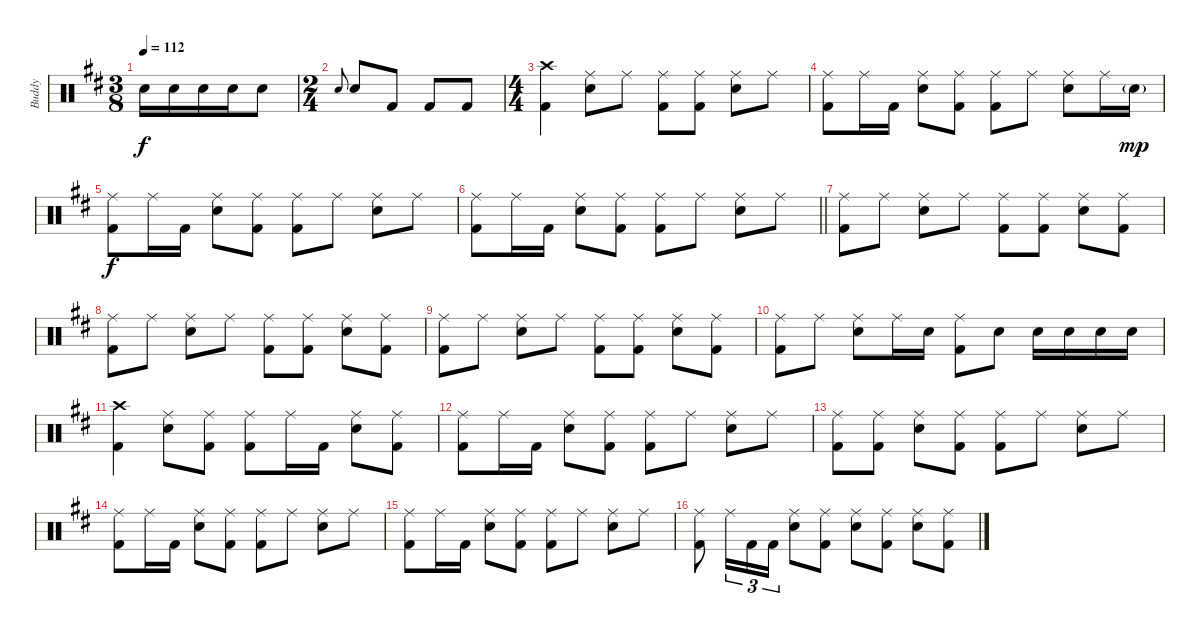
\track ("Buddy " "Buddy ") {instrument percussion}
\staff {score}
\articulation defaults
\ts (3 8)
\tempo 112
\clef neutral
\ks d "Snare (hit) 2".16{dy f} "Snare (hit) 2".16 "Snare (hit) 2".16 "Snare (hit) 2".16 "Snare (hit) 2".8
|
\ts (2 4)
"Snare (hit) 2"{h}.8{gr onbeat} "Snare (hit) 2".8 "Kick (hit) 2".8 "Kick (hit) 2".8 "Kick (hit) 2".8 |
\ts (4 4)
("Crash high (hit)" "Kick (hit) 2").4 ("Ride (middle)" "Snare (hit) 2").8 "Ride (middle)".8 ("Ride (middle)" "Kick (hit) 2").8 ("Ride (middle)" "Kick (hit) 2").8 ("Ride (middle)" "Snare (hit) 2").8 "Ride (middle)".8 |
("Ride (middle)" "Kick (hit) 2").8 "Ride (middle)".16 "Kick (hit) 2".16 ("Ride (middle)" "Snare (hit) 2").8 ("Ride (middle)" "Kick (hit) 2").8 ("Ride (middle)" "Kick (hit) 2").8 "Ride (middle)".8 ("Ride (middle)" "Snare (hit) 2").8 "Ride (middle)".16 "Snare (hit) 2"{g}.16{dy mp} |
("Ride (middle)" "Kick (hit) 2").8{dy f} "Ride (middle)".16 "Kick (hit) 2".16 ("Ride (middle)" "Snare (hit) 2").8 ("Ride (middle)" "Kick (hit) 2").8 ("Ride (middle)" "Kick (hit) 2").8 "Ride (middle)".8 ("Ride (middle)" "Snare (hit) 2").8 "Ride (middle)".8 |
\barLineRight lightlight
("Ride (middle)" "Kick (hit) 2").8 "Ride (middle)".16 "Kick (hit) 2".16 ("Ride (middle)" "Snare (hit) 2").8 ("Ride (middle)" "Kick (hit) 2").8 ("Ride (middle)" "Kick (hit) 2").8 "Ride (middle)".8 ("Ride (middle)" "Snare (hit) 2").8 "Ride (middle)".8 |
("Ride (middle)" "Kick (hit) 2").8 "Ride (middle)".8 ("Ride (middle)" "Snare (hit) 2").8 "Ride (middle)".8 ("Ride (middle)" "Kick (hit) 2").8 ("Ride (middle)" "Kick (hit) 2").8 ("Ride (middle)" "Snare (hit) 2").8 ("Ride (middle)" "Kick (hit) 2").8 |
("Ride (middle)" "Kick (hit) 2").8 "Ride (middle)".8 ("Ride (middle)" "Snare (hit) 2").8 "Ride (middle)".8 ("Ride (middle)" "Kick (hit) 2").8 ("Ride (middle)" "Kick (hit) 2").8 ("Ride (middle)" "Snare (hit) 2").8 ("Ride (middle)" "Kick (hit) 2").8 |
("Ride (middle)" "Kick (hit) 2").8 "Ride (middle)".8 ("Ride (middle)" "Snare (hit) 2").8 "Ride (middle)".8 ("Ride (middle)" "Kick (hit) 2").8 ("Ride (middle)" "Kick (hit) 2").8 ("Ride (middle)" "Snare (hit) 2").8 ("Ride (middle)" "Kick (hit) 2").8 |
("Ride (middle)" "Kick (hit) 2").8 "Ride (middle)".8 ("Ride (middle)" "Snare (hit) 2").8 "Ride (middle)".16 "Snare (hit) 2".16 ("Ride (middle)" "Kick (hit) 2").8 "Snare (hit) 2".8 "Snare (hit) 2".16 "Snare (hit) 2".16 "Snare (hit) 2".16 "Snare (hit) 2".16 |
("Crash high (hit)" "Kick (hit) 2").4 ("Ride (middle)" "Snare (hit) 2").8 ("Ride (middle)" "Kick (hit) 2").8 ("Ride (middle)" "Kick (hit) 2").8 "Ride (middle)".16 "Kick (hit) 2".16 ("Ride (middle)" "Snare (hit) 2").8 ("Ride (middle)" "Kick (hit) 2").8 |
("Ride (middle)" "Kick (hit) 2").8 "Ride (middle)".16 "Kick (hit) 2".16 ("Ride (middle)" "Snare (hit) 2").8 ("Ride (middle)" "Kick (hit) 2").8 ("Ride (middle)" "Kick (hit) 2").8 "Ride (middle)".8 ("Ride (middle)" "Snare (hit) 2").8 "Ride (middle)".8 |
("Ride (middle)" "Kick (hit) 2").8 ("Ride (middle)" "Kick (hit) 2").8 ("Ride (middle)" "Snare (hit) 2").8 ("Ride (middle)" "Kick (hit) 2").8 ("Ride (middle)" "Kick (hit) 2").8 "Ride (middle)".8 ("Ride (middle)" "Snare (hit) 2").8 "Ride (middle)".8 |
("Ride (middle)" "Kick (hit) 2").8 "Ride (middle)".16 "Kick (hit) 2".16 ("Ride (middle)" "Snare (hit) 2").8 ("Ride (middle)" "Kick (hit) 2").8 ("Ride (middle)" "Kick (hit) 2").8 "Ride (middle)".8 ("Ride (middle)" "Snare (hit) 2").8 "Ride (middle)".8 |
("Ride (middle)" "Kick (hit) 2").8 "Ride (middle)".16 "Kick (hit) 2".16 ("Ride (middle)" "Snare (hit) 2").8 ("Ride (middle)" "Kick (hit) 2").8 ("Ride (middle)" "Kick (hit) 2").8 "Ride (middle)".8 ("Ride (middle)" "Snare (hit) 2").8 "Ride (middle)".8 |
("Ride (middle)" "Kick (hit) 2").8 "Ride (middle)".16{tu (3 2)} "Kick (hit) 2".16{tu (3 2)} "Kick (hit) 2".16{tu (3 2)} ("Ride (middle)" "Snare (hit) 2").8 ("Ride (middle)" "Kick (hit) 2").8 ("Ride (middle)" "Snare (hit) 2").8 ("Ride (middle)" "Kick (hit) 2").8 ("Ride (middle)" "Snare (hit) 2").8 ("Ride (middle)" "Kick (hit) 2").8
